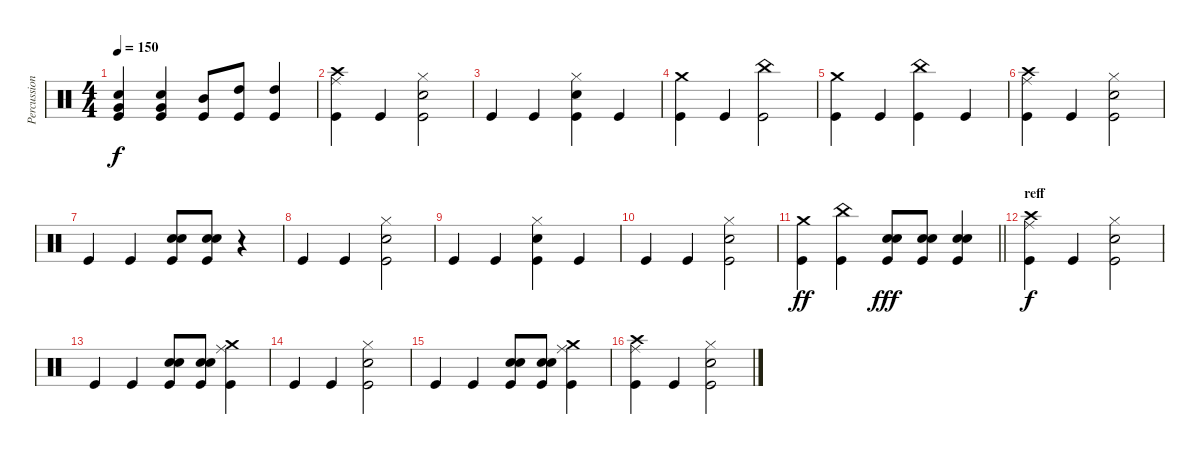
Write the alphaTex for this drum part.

\track ("Percussion" "Percussion") {instrument percussion}
\staff {score}
\articulation defaults
\ts (4 4)
\tempo 150
\clef neutral
\ks c
("Electric Snare (hit)" "Very Low Tom (hit)" "Kick (hit)").4{dy f} ("Electric Snare (hit)" "Very Low Tom (hit)" "Kick (hit)").4 ("Mid Tom (hit)" "Kick (hit)").8 ("High Tom (hit)" "Kick (hit)").8 ("High Tom (hit)" "Kick (hit)").4 |
("Crash high (hit)" "Ride (middle)" "Kick (hit)").4 "Kick (hit)".4 ("Hi-Hat (closed)" "Electric Snare (hit)" "Kick (hit)").2 |
"Kick (hit)".4 "Kick (hit)".4 ("Hi-Hat (closed)" "Electric Snare (hit)" "Kick (hit)").4 "Kick (hit)".4 |
("Crash medium (hit)" "Kick (hit)").4 "Kick (hit)".4 ("China (hit)" "Kick (hit)").2 |
("Crash medium (hit)" "Kick (hit)").4 "Kick (hit)".4 ("China (hit)" "Kick (hit)").4 "Kick (hit)".4 |
("Crash high (hit)" "Ride (middle)" "Kick (hit)").4 "Kick (hit)".4 ("Hi-Hat (closed)" "Electric Snare (hit)" "Kick (hit)").2 |
"Kick (hit)".4 "Kick (hit)".4 ("Electric Snare (hit)" "Electric Snare (hit)" "Kick (hit)").8 ("Electric Snare (hit)" "Electric Snare (hit)" "Kick (hit)").8 r.4 |
"Kick (hit)".4 "Kick (hit)".4 ("Hi-Hat (closed)" "Electric Snare (hit)" "Kick (hit)").2 |
"Kick (hit)".4 "Kick (hit)".4 ("Hi-Hat (closed)" "Electric Snare (hit)" "Kick (hit)").4 "Kick (hit)".4 |
"Kick (hit)".4 "Kick (hit)".4 ("Hi-Hat (closed)" "Electric Snare (hit)" "Kick (hit)").2 |
\barLineRight lightlight
("Crash medium (hit)" "Kick (hit)").4{dy ff} ("China (hit)" "Kick (hit)").4 ("Electric Snare (hit)" "Electric Snare (hit)" "Kick (hit)").8{dy fff} ("Electric Snare (hit)" "Electric Snare (hit)" "Kick (hit)").8 ("Electric Snare (hit)" "Electric Snare (hit)" "Kick (hit)").4 |
\section ("" "reff")
("Crash high (hit)" "Ride (middle)" "Kick (hit)").4{dy f} "Kick (hit)".4 ("Hi-Hat (closed)" "Electric Snare (hit)" "Kick (hit)").2 |
"Kick (hit)".4 "Kick (hit)".4 ("Electric Snare (hit)" "Electric Snare (hit)" "Kick (hit)").8 ("Electric Snare (hit)" "Electric Snare (hit)" "Kick (hit)").8 ("Crash medium (hit)" "Ride (middle)" "Kick (hit)").4 |
"Kick (hit)".4 "Kick (hit)".4 ("Hi-Hat (closed)" "Electric Snare (hit)" "Kick (hit)").2 |
"Kick (hit)".4 "Kick (hit)".4 ("Electric Snare (hit)" "Electric Snare (hit)" "Kick (hit)").8 ("Electric Snare (hit)" "Electric Snare (hit)" "Kick (hit)").8 ("Crash medium (hit)" "Ride (middle)" "Kick (hit)").4 |
("Crash high (hit)" "Ride (middle)" "Kick (hit)").4 "Kick (hit)".4 ("Hi-Hat (closed)" "Electric Snare (hit)" "Kick (hit)").2
